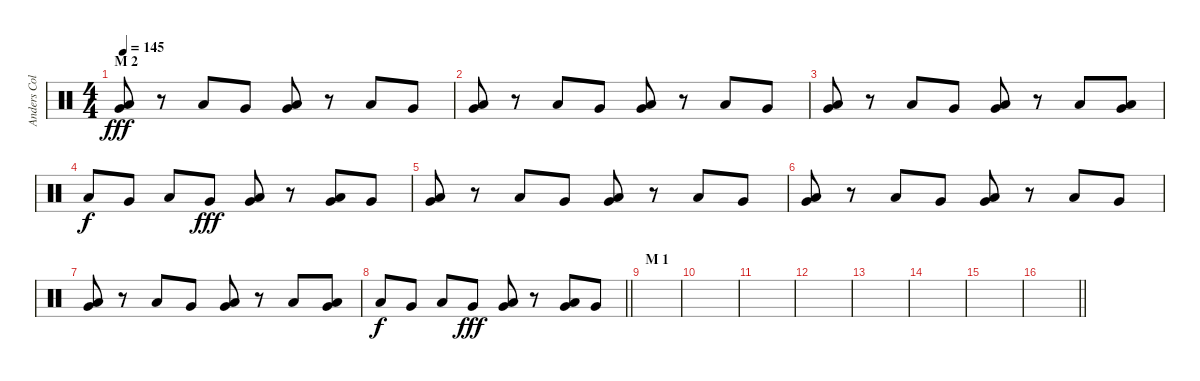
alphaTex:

\track ("Anders Colsefni" "Anders Col") {instrument percussion}
\staff {score}
\articulation defaults
\ts (4 4)
\section ("" "M 2")
\tempo 145
\clef neutral
\ks c
("Very Low Tom (hit)" "Low Floor Tom (hit)").8{dy fff} r.8 "Low Floor Tom (hit)".8 "Very Low Tom (hit)".8 ("Very Low Tom (hit)" "Low Floor Tom (hit)").8 r.8 "Low Floor Tom (hit)".8 "Very Low Tom (hit)".8 |
("Very Low Tom (hit)" "Low Floor Tom (hit)").8 r.8 "Low Floor Tom (hit)".8 "Very Low Tom (hit)".8 ("Very Low Tom (hit)" "Low Floor Tom (hit)").8 r.8 "Low Floor Tom (hit)".8 "Very Low Tom (hit)".8 |
("Very Low Tom (hit)" "Low Floor Tom (hit)").8 r.8 "Low Floor Tom (hit)".8 "Very Low Tom (hit)".8 ("Very Low Tom (hit)" "Low Floor Tom (hit)").8 r.8 "Low Floor Tom (hit)".8 ("Very Low Tom (hit)" "Low Floor Tom (hit)").8 |
"Low Floor Tom (hit)".8{dy f} "Very Low Tom (hit)".8 "Low Floor Tom (hit)".8 "Very Low Tom (hit)".8{dy fff} ("Very Low Tom (hit)" "Low Floor Tom (hit)").8 r.8 ("Very Low Tom (hit)" "Low Floor Tom (hit)").8 "Very Low Tom (hit)".8 |
("Very Low Tom (hit)" "Low Floor Tom (hit)").8 r.8 "Low Floor Tom (hit)".8 "Very Low Tom (hit)".8 ("Very Low Tom (hit)" "Low Floor Tom (hit)").8 r.8 "Low Floor Tom (hit)".8 "Very Low Tom (hit)".8 |
("Very Low Tom (hit)" "Low Floor Tom (hit)").8 r.8 "Low Floor Tom (hit)".8 "Very Low Tom (hit)".8 ("Very Low Tom (hit)" "Low Floor Tom (hit)").8 r.8 "Low Floor Tom (hit)".8 "Very Low Tom (hit)".8 |
("Very Low Tom (hit)" "Low Floor Tom (hit)").8 r.8 "Low Floor Tom (hit)".8 "Very Low Tom (hit)".8 ("Very Low Tom (hit)" "Low Floor Tom (hit)").8 r.8 "Low Floor Tom (hit)".8 ("Very Low Tom (hit)" "Low Floor Tom (hit)").8 |
\barLineRight lightlight "Low Floor Tom (hit)".8{dy f} "Very Low Tom (hit)".8 "Low Floor Tom (hit)".8 "Very Low Tom (hit)".8{dy fff}
("Very Low Tom (hit)" "Low Floor Tom (hit)").8 r.8 ("Very Low Tom (hit)" "Low Floor Tom (hit)").8 "Very Low Tom (hit)".8 |
\section ("" "M 1")
|
|
|
|
|
|
|
\barLineRight lightlight
